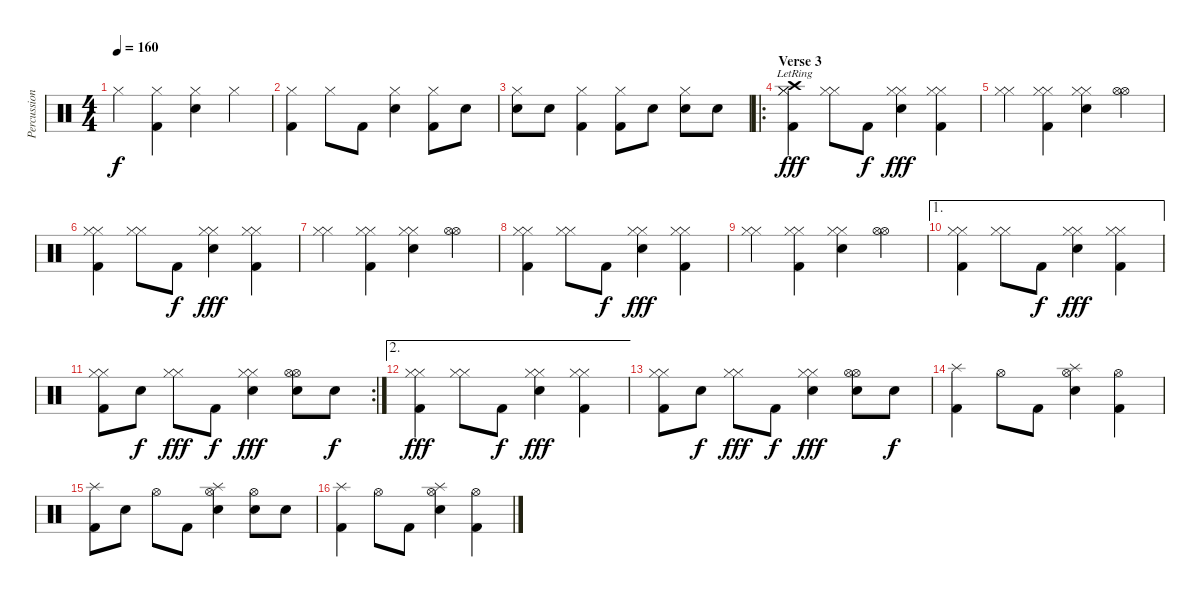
\track ("Percussion" "Percussion") {instrument percussion}
\staff {score}
\articulation defaults
\ts (4 4)
\tempo 160
\clef neutral
\ks c "Hi-Hat (closed)".4{dy f}
("Hi-Hat (closed)" "Kick (hit) 2").4 ("Hi-Hat (closed)" "Electric Snare (hit)").4 "Hi-Hat (closed)".4 |
("Hi-Hat (closed)" "Kick (hit) 2").4 "Hi-Hat (closed)".8 "Kick (hit) 2".8 ("Hi-Hat (closed)" "Electric Snare (hit)").4 ("Hi-Hat (closed)" "Kick (hit) 2").8 "Electric Snare (hit)".8 |
("Hi-Hat (closed)" "Electric Snare (hit)").8 "Electric Snare (hit)".8 ("Hi-Hat (closed)" "Kick (hit) 2").4 ("Hi-Hat (closed)" "Kick (hit) 2").8 "Electric Snare (hit)".8 ("Hi-Hat (closed)" "Electric Snare (hit)").8 "Electric Snare (hit)".8 |
\ro
\section ("" "Verse 3")
("Hi-Hat (closed)" "Hi-Hat (closed)" "Crash high (hit)"{lr} "Kick (hit) 2").4{dy fff} ("Hi-Hat (closed)" "Hi-Hat (closed)").8 "Kick (hit) 2".8{dy f} ("Hi-Hat (closed)" "Hi-Hat (closed)" "Electric Snare (hit)").4{dy fff} ("Hi-Hat (closed)" "Hi-Hat (closed)" "Kick (hit) 2").4 |
("Hi-Hat (closed)" "Hi-Hat (closed)").4 ("Hi-Hat (closed)" "Hi-Hat (closed)" "Kick (hit) 2").4 ("Hi-Hat (closed)" "Hi-Hat (closed)" "Electric Snare (hit)").4 ("Hi-Hat (open)" "Hi-Hat (open)").4 |
("Hi-Hat (closed)" "Hi-Hat (closed)" "Kick (hit) 2").4 ("Hi-Hat (closed)" "Hi-Hat (closed)").8 "Kick (hit) 2".8{dy f} ("Hi-Hat (closed)" "Hi-Hat (closed)" "Electric Snare (hit)").4{dy fff} ("Hi-Hat (closed)" "Hi-Hat (closed)" "Kick (hit) 2").4 |
("Hi-Hat (closed)" "Hi-Hat (closed)").4 ("Hi-Hat (closed)" "Hi-Hat (closed)" "Kick (hit) 2").4 ("Hi-Hat (closed)" "Hi-Hat (closed)" "Electric Snare (hit)").4 ("Hi-Hat (open)" "Hi-Hat (open)").4 |
("Hi-Hat (closed)" "Hi-Hat (closed)" "Kick (hit) 2").4 ("Hi-Hat (closed)" "Hi-Hat (closed)").8 "Kick (hit) 2".8{dy f} ("Hi-Hat (closed)" "Hi-Hat (closed)" "Electric Snare (hit)").4{dy fff} ("Hi-Hat (closed)" "Hi-Hat (closed)" "Kick (hit) 2").4 |
("Hi-Hat (closed)" "Hi-Hat (closed)").4 ("Hi-Hat (closed)" "Hi-Hat (closed)" "Kick (hit) 2").4 ("Hi-Hat (closed)" "Hi-Hat (closed)" "Electric Snare (hit)").4 ("Hi-Hat (open)" "Hi-Hat (open)").4 |
\ae 1
("Hi-Hat (closed)" "Hi-Hat (closed)" "Kick (hit) 2").4 ("Hi-Hat (closed)" "Hi-Hat (closed)").8 "Kick (hit) 2".8{dy f} ("Hi-Hat (closed)" "Hi-Hat (closed)" "Electric Snare (hit)").4{dy fff} ("Hi-Hat (closed)" "Hi-Hat (closed)" "Kick (hit) 2").4 |
\rc 2
("Hi-Hat (closed)" "Hi-Hat (closed)" "Kick (hit) 2").8 "Electric Snare (hit)".8{dy f} ("Hi-Hat (closed)" "Hi-Hat (closed)").8{dy fff} "Kick (hit) 2".8{dy f} ("Hi-Hat (closed)" "Hi-Hat (closed)" "Electric Snare (hit)").4{dy fff} ("Hi-Hat (open)" "Hi-Hat (open)" "Electric Snare (hit)").8 "Electric Snare (hit)".8{dy f} |
\ae 2
("Hi-Hat (closed)" "Hi-Hat (closed)" "Kick (hit) 2").4{dy fff} ("Hi-Hat (closed)" "Hi-Hat (closed)").8 "Kick (hit) 2".8{dy f} ("Hi-Hat (closed)" "Hi-Hat (closed)" "Electric Snare (hit)").4{dy fff} ("Hi-Hat (closed)" "Hi-Hat (closed)" "Kick (hit) 2").4 |
("Hi-Hat (closed)" "Hi-Hat (closed)" "Kick (hit) 2").8 "Electric Snare (hit)".8{dy f} ("Hi-Hat (closed)" "Hi-Hat (closed)").8{dy fff} "Kick (hit) 2".8{dy f} ("Hi-Hat (closed)" "Hi-Hat (closed)" "Electric Snare (hit)").4{dy fff} ("Hi-Hat (open)" "Hi-Hat (open)" "Electric Snare (hit)").8 "Electric Snare (hit)".8{dy f} |
("Splash (hit)" "Kick (hit) 2").4 "Hi-Hat (open)".8 "Kick (hit) 2".8 ("Splash (hit)" "Hi-Hat (open)" "Electric Snare (hit)").4 ("Hi-Hat (open)" "Kick (hit) 2").4 |
("Splash (hit)" "Kick (hit) 2").8 "Electric Snare (hit)".8 "Hi-Hat (open)".8 "Kick (hit) 2".8 ("Splash (hit)" "Hi-Hat (open)" "Electric Snare (hit)").4 ("Hi-Hat (open)" "Electric Snare (hit)").8 "Electric Snare (hit)".8 |
("Splash (hit)" "Kick (hit) 2").4 "Hi-Hat (open)".8 "Kick (hit) 2".8 ("Splash (hit)" "Hi-Hat (open)" "Electric Snare (hit)").4 ("Hi-Hat (open)" "Kick (hit) 2").4
